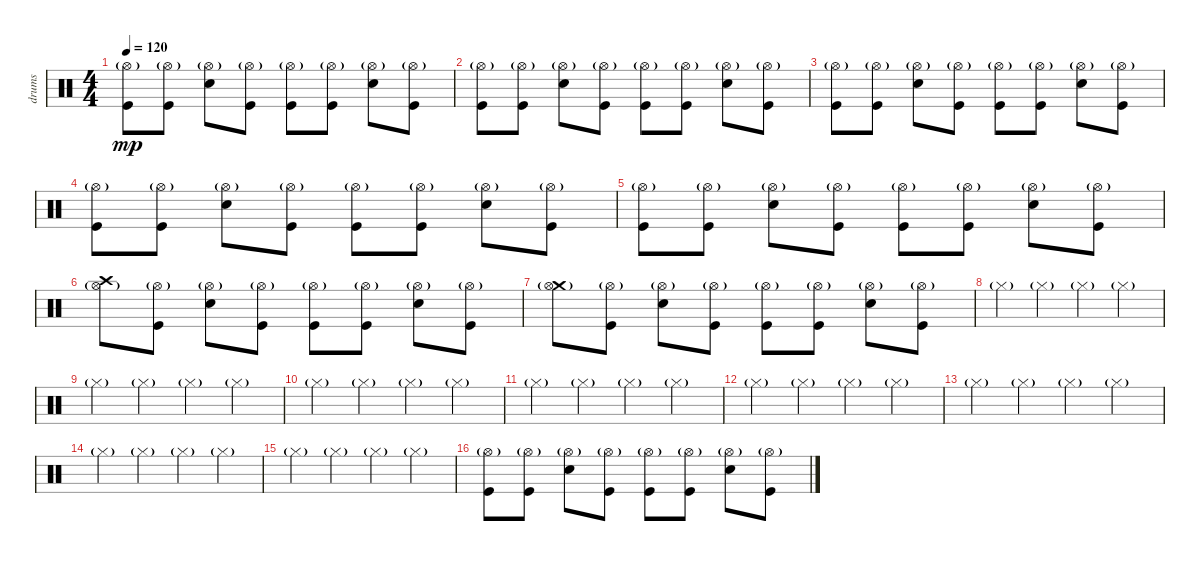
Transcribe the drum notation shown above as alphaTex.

\track ("drums" "drums") {instrument percussion}
\staff {score}
\articulation defaults
\ts (4 4)
\tempo 120
\clef neutral
\ks c
("Kick (hit)" "Hi-Hat (open)"{g}).8{dy mp} ("Kick (hit)" "Hi-Hat (open)"{g}).8 ("Electric Snare (hit)" "Hi-Hat (open)"{g}).8 ("Kick (hit)" "Hi-Hat (open)"{g}).8 ("Kick (hit)" "Hi-Hat (open)"{g}).8 ("Kick (hit)" "Hi-Hat (open)"{g}).8 ("Electric Snare (hit)" "Hi-Hat (open)"{g}).8 ("Kick (hit)" "Hi-Hat (open)"{g}).8 |
("Kick (hit)" "Hi-Hat (open)"{g}).8 ("Kick (hit)" "Hi-Hat (open)"{g}).8 ("Electric Snare (hit)" "Hi-Hat (open)"{g}).8 ("Kick (hit)" "Hi-Hat (open)"{g}).8 ("Kick (hit)" "Hi-Hat (open)"{g}).8 ("Kick (hit)" "Hi-Hat (open)"{g}).8 ("Electric Snare (hit)" "Hi-Hat (open)"{g}).8 ("Kick (hit)" "Hi-Hat (open)"{g}).8 |
("Kick (hit)" "Hi-Hat (open)"{g}).8 ("Kick (hit)" "Hi-Hat (open)"{g}).8 ("Electric Snare (hit)" "Hi-Hat (open)"{g}).8 ("Kick (hit)" "Hi-Hat (open)"{g}).8 ("Kick (hit)" "Hi-Hat (open)"{g}).8 ("Kick (hit)" "Hi-Hat (open)"{g}).8 ("Electric Snare (hit)" "Hi-Hat (open)"{g}).8 ("Kick (hit)" "Hi-Hat (open)"{g}).8 |
("Kick (hit)" "Hi-Hat (open)"{g}).8 ("Kick (hit)" "Hi-Hat (open)"{g}).8 ("Electric Snare (hit)" "Hi-Hat (open)"{g}).8 ("Kick (hit)" "Hi-Hat (open)"{g}).8 ("Kick (hit)" "Hi-Hat (open)"{g}).8 ("Kick (hit)" "Hi-Hat (open)"{g}).8 ("Electric Snare (hit)" "Hi-Hat (open)"{g}).8 ("Kick (hit)" "Hi-Hat (open)"{g}).8 |
("Kick (hit)" "Hi-Hat (open)"{g}).8 ("Kick (hit)" "Hi-Hat (open)"{g}).8 ("Electric Snare (hit)" "Hi-Hat (open)"{g}).8 ("Kick (hit)" "Hi-Hat (open)"{g}).8 ("Kick (hit)" "Hi-Hat (open)"{g}).8 ("Kick (hit)" "Hi-Hat (open)"{g}).8 ("Electric Snare (hit)" "Hi-Hat (open)"{g}).8 ("Kick (hit)" "Hi-Hat (open)"{g}).8 |
("Crash high (hit)" "Hi-Hat (open)"{g}).8 ("Kick (hit)" "Hi-Hat (open)"{g}).8 ("Electric Snare (hit)" "Hi-Hat (open)"{g}).8 ("Kick (hit)" "Hi-Hat (open)"{g}).8 ("Kick (hit)" "Hi-Hat (open)"{g}).8 ("Kick (hit)" "Hi-Hat (open)"{g}).8 ("Electric Snare (hit)" "Hi-Hat (open)"{g}).8 ("Kick (hit)" "Hi-Hat (open)"{g}).8 |
("Crash medium (hit)" "Hi-Hat (open)"{g}).8 ("Kick (hit)" "Hi-Hat (open)"{g}).8 ("Electric Snare (hit)" "Hi-Hat (open)"{g}).8 ("Kick (hit)" "Hi-Hat (open)"{g}).8 ("Kick (hit)" "Hi-Hat (open)"{g}).8 ("Kick (hit)" "Hi-Hat (open)"{g}).8 ("Electric Snare (hit)" "Hi-Hat (open)"{g}).8 ("Kick (hit)" "Hi-Hat (open)"{g}).8 |
"Hi-Hat (closed)"{g}.4 "Hi-Hat (closed)"{g}.4 "Hi-Hat (closed)"{g}.4 "Hi-Hat (closed)"{g}.4 |
"Hi-Hat (closed)"{g}.4 "Hi-Hat (closed)"{g}.4 "Hi-Hat (closed)"{g}.4 "Hi-Hat (closed)"{g}.4 |
"Hi-Hat (closed)"{g}.4 "Hi-Hat (closed)"{g}.4 "Hi-Hat (closed)"{g}.4 "Hi-Hat (closed)"{g}.4 |
"Hi-Hat (closed)"{g}.4 "Hi-Hat (closed)"{g}.4 "Hi-Hat (closed)"{g}.4 "Hi-Hat (closed)"{g}.4 |
"Hi-Hat (closed)"{g}.4 "Hi-Hat (closed)"{g}.4 "Hi-Hat (closed)"{g}.4 "Hi-Hat (closed)"{g}.4 |
"Hi-Hat (closed)"{g}.4 "Hi-Hat (closed)"{g}.4 "Hi-Hat (closed)"{g}.4 "Hi-Hat (closed)"{g}.4 |
"Hi-Hat (closed)"{g}.4 "Hi-Hat (closed)"{g}.4 "Hi-Hat (closed)"{g}.4 "Hi-Hat (closed)"{g}.4 |
"Hi-Hat (closed)"{g}.4 "Hi-Hat (closed)"{g}.4 "Hi-Hat (closed)"{g}.4 "Hi-Hat (closed)"{g}.4 |
("Kick (hit)" "Hi-Hat (open)"{g}).8 ("Kick (hit)" "Hi-Hat (open)"{g}).8 ("Electric Snare (hit)" "Hi-Hat (open)"{g}).8 ("Kick (hit)" "Hi-Hat (open)"{g}).8 ("Kick (hit)" "Hi-Hat (open)"{g}).8 ("Kick (hit)" "Hi-Hat (open)"{g}).8 ("Electric Snare (hit)" "Hi-Hat (open)"{g}).8 ("Kick (hit)" "Hi-Hat (open)"{g}).8
